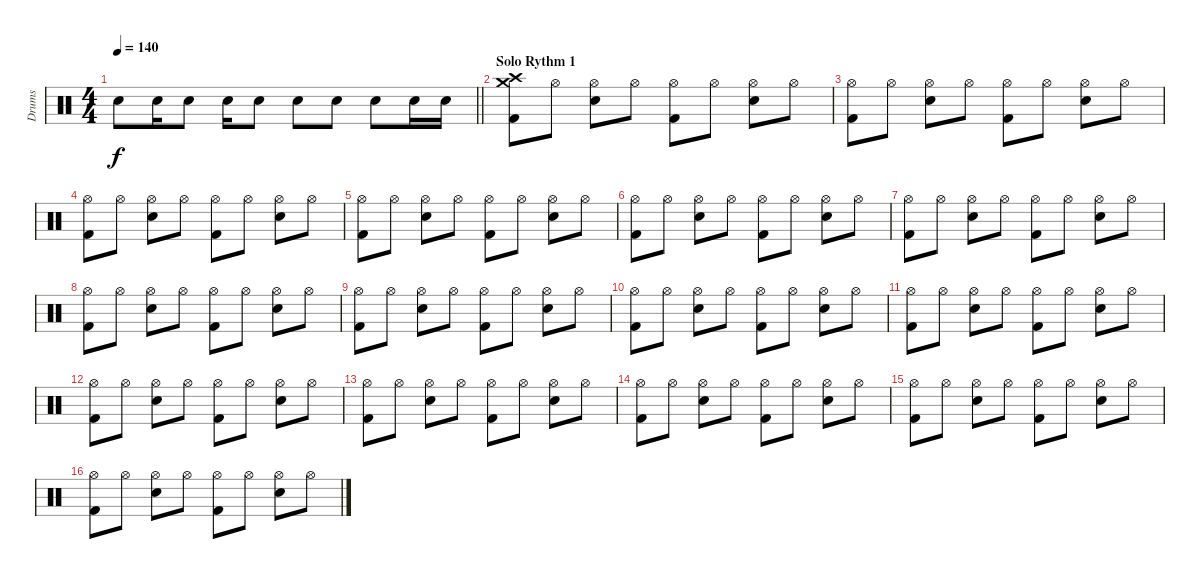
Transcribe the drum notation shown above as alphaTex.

\track ("Drums" "Drums") {instrument percussion}
\staff {score}
\articulation defaults
\ts (4 4)
\tempo 140
\clef neutral
\barLineRight lightlight
\ks c "Snare (hit) 2".8{dy f} "Snare (hit) 2".16 "Snare (hit) 2".8 "Snare (hit) 2".16 "Snare (hit) 2".8 "Snare (hit) 2".8 "Snare (hit) 2".8 "Snare (hit) 2".8 "Snare (hit) 2".16 "Snare (hit) 2".16
|
\section ("" "Solo Rythm 1")
("Crash medium (hit)" "Crash high (hit)" "Kick (hit) 2").8 "Hi-Hat (open)".8 ("Hi-Hat (open)" "Snare (hit) 2").8 "Hi-Hat (open)".8 ("Hi-Hat (open)" "Kick (hit) 2").8 "Hi-Hat (open)".8 ("Hi-Hat (open)" "Snare (hit) 2").8 "Hi-Hat (open)".8 |
("Hi-Hat (open)" "Kick (hit) 2").8 "Hi-Hat (open)".8 ("Hi-Hat (open)" "Snare (hit) 2").8 "Hi-Hat (open)".8 ("Hi-Hat (open)" "Kick (hit) 2").8 "Hi-Hat (open)".8 ("Hi-Hat (open)" "Snare (hit) 2").8 "Hi-Hat (open)".8 |
("Hi-Hat (open)" "Kick (hit) 2").8 "Hi-Hat (open)".8 ("Hi-Hat (open)" "Snare (hit) 2").8 "Hi-Hat (open)".8 ("Hi-Hat (open)" "Kick (hit) 2").8 "Hi-Hat (open)".8 ("Hi-Hat (open)" "Snare (hit) 2").8 "Hi-Hat (open)".8 |
("Hi-Hat (open)" "Kick (hit) 2").8 "Hi-Hat (open)".8 ("Hi-Hat (open)" "Snare (hit) 2").8 "Hi-Hat (open)".8 ("Hi-Hat (open)" "Kick (hit) 2").8 "Hi-Hat (open)".8 ("Hi-Hat (open)" "Snare (hit) 2").8 "Hi-Hat (open)".8 |
("Hi-Hat (open)" "Kick (hit) 2").8 "Hi-Hat (open)".8 ("Hi-Hat (open)" "Snare (hit) 2").8 "Hi-Hat (open)".8 ("Hi-Hat (open)" "Kick (hit) 2").8 "Hi-Hat (open)".8 ("Hi-Hat (open)" "Snare (hit) 2").8 "Hi-Hat (open)".8 |
("Hi-Hat (open)" "Kick (hit) 2").8 "Hi-Hat (open)".8 ("Hi-Hat (open)" "Snare (hit) 2").8 "Hi-Hat (open)".8 ("Hi-Hat (open)" "Kick (hit) 2").8 "Hi-Hat (open)".8 ("Hi-Hat (open)" "Snare (hit) 2").8 "Hi-Hat (open)".8 |
("Hi-Hat (open)" "Kick (hit) 2").8 "Hi-Hat (open)".8 ("Hi-Hat (open)" "Snare (hit) 2").8 "Hi-Hat (open)".8 ("Hi-Hat (open)" "Kick (hit) 2").8 "Hi-Hat (open)".8 ("Hi-Hat (open)" "Snare (hit) 2").8 "Hi-Hat (open)".8 |
("Hi-Hat (open)" "Kick (hit) 2").8 "Hi-Hat (open)".8 ("Hi-Hat (open)" "Snare (hit) 2").8 "Hi-Hat (open)".8 ("Hi-Hat (open)" "Kick (hit) 2").8 "Hi-Hat (open)".8 ("Hi-Hat (open)" "Snare (hit) 2").8 "Hi-Hat (open)".8 |
("Hi-Hat (open)" "Kick (hit) 2").8 "Hi-Hat (open)".8 ("Hi-Hat (open)" "Snare (hit) 2").8 "Hi-Hat (open)".8 ("Hi-Hat (open)" "Kick (hit) 2").8 "Hi-Hat (open)".8 ("Hi-Hat (open)" "Snare (hit) 2").8 "Hi-Hat (open)".8 |
("Hi-Hat (open)" "Kick (hit) 2").8 "Hi-Hat (open)".8 ("Hi-Hat (open)" "Snare (hit) 2").8 "Hi-Hat (open)".8 ("Hi-Hat (open)" "Kick (hit) 2").8 "Hi-Hat (open)".8 ("Hi-Hat (open)" "Snare (hit) 2").8 "Hi-Hat (open)".8 |
("Hi-Hat (open)" "Kick (hit) 2").8 "Hi-Hat (open)".8 ("Hi-Hat (open)" "Snare (hit) 2").8 "Hi-Hat (open)".8 ("Hi-Hat (open)" "Kick (hit) 2").8 "Hi-Hat (open)".8 ("Hi-Hat (open)" "Snare (hit) 2").8 "Hi-Hat (open)".8 |
("Hi-Hat (open)" "Kick (hit) 2").8 "Hi-Hat (open)".8 ("Hi-Hat (open)" "Snare (hit) 2").8 "Hi-Hat (open)".8 ("Hi-Hat (open)" "Kick (hit) 2").8 "Hi-Hat (open)".8 ("Hi-Hat (open)" "Snare (hit) 2").8 "Hi-Hat (open)".8 |
("Hi-Hat (open)" "Kick (hit) 2").8 "Hi-Hat (open)".8 ("Hi-Hat (open)" "Snare (hit) 2").8 "Hi-Hat (open)".8 ("Hi-Hat (open)" "Kick (hit) 2").8 "Hi-Hat (open)".8 ("Hi-Hat (open)" "Snare (hit) 2").8 "Hi-Hat (open)".8 |
("Hi-Hat (open)" "Kick (hit) 2").8 "Hi-Hat (open)".8 ("Hi-Hat (open)" "Snare (hit) 2").8 "Hi-Hat (open)".8 ("Hi-Hat (open)" "Kick (hit) 2").8 "Hi-Hat (open)".8 ("Hi-Hat (open)" "Snare (hit) 2").8 "Hi-Hat (open)".8 |
("Hi-Hat (open)" "Kick (hit) 2").8 "Hi-Hat (open)".8 ("Hi-Hat (open)" "Snare (hit) 2").8 "Hi-Hat (open)".8 ("Hi-Hat (open)" "Kick (hit) 2").8 "Hi-Hat (open)".8 ("Hi-Hat (open)" "Snare (hit) 2").8 "Hi-Hat (open)".8
